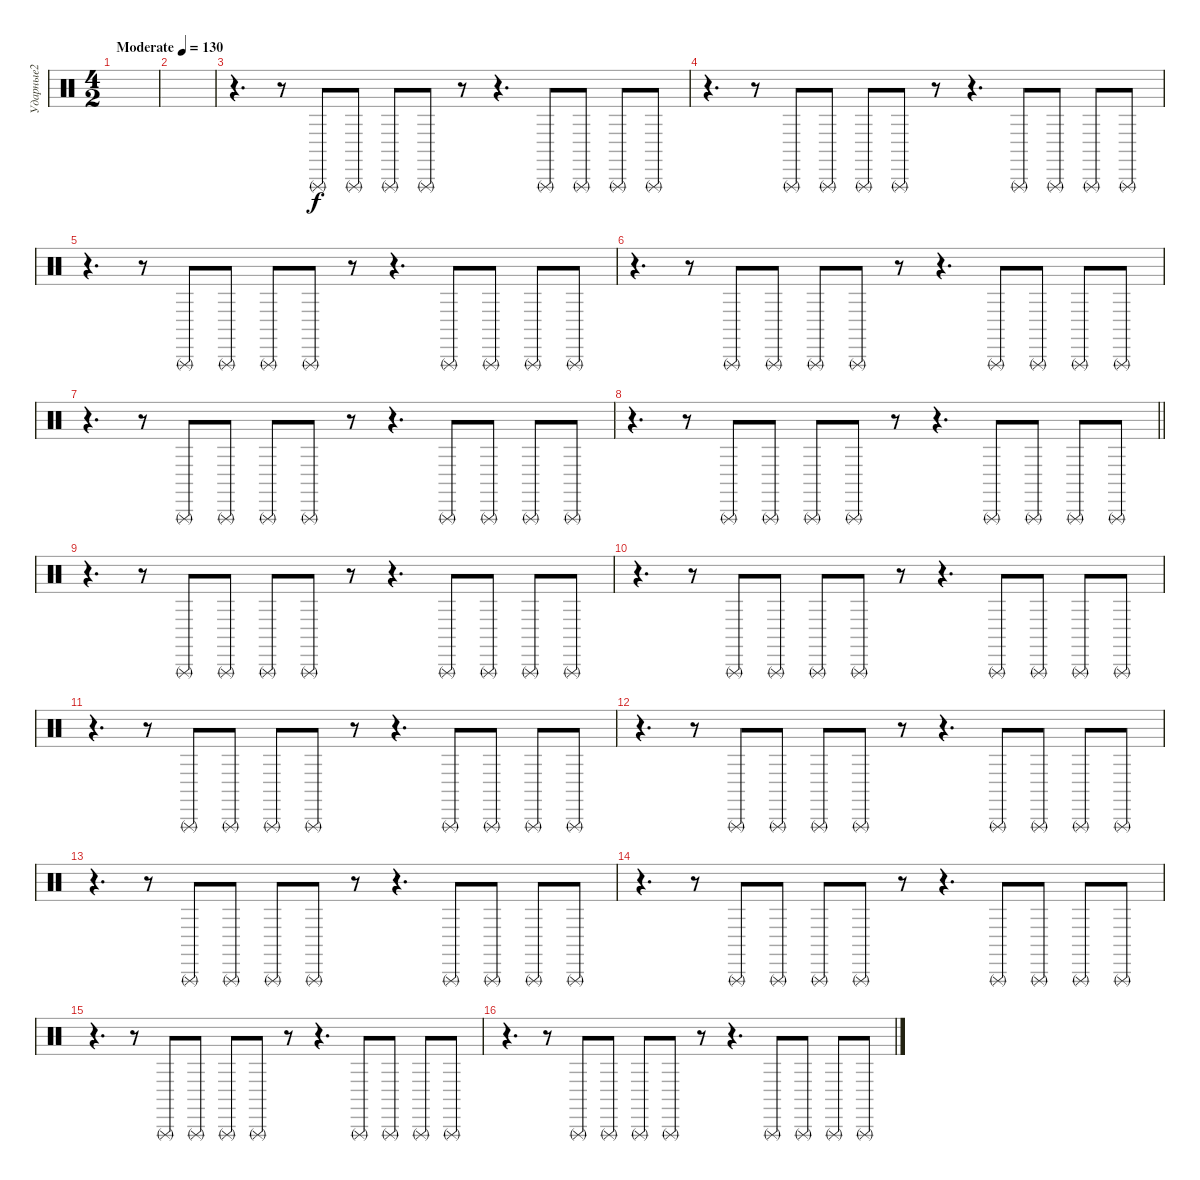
\track ("Ударные2" "Ударные2") {instrument percussion}
\staff {score}
\articulation defaults
\ts (4 2)
\tempo (130 "Moderate")
\clef neutral
\ks c
|
|
r.4{d} r.8 "Triangle (rnute)".8 "Triangle (rnute)".8 "Triangle (rnute)".8 "Triangle (rnute)".8 r.8 r.4{d} "Triangle (rnute)".8 "Triangle (rnute)".8 "Triangle (rnute)".8 "Triangle (rnute)".8 |
r.4{d} r.8 "Triangle (rnute)".8 "Triangle (rnute)".8 "Triangle (rnute)".8 "Triangle (rnute)".8 r.8 r.4{d} "Triangle (rnute)".8 "Triangle (rnute)".8 "Triangle (rnute)".8 "Triangle (rnute)".8 |
r.4{d} r.8 "Triangle (rnute)".8 "Triangle (rnute)".8 "Triangle (rnute)".8 "Triangle (rnute)".8 r.8 r.4{d} "Triangle (rnute)".8 "Triangle (rnute)".8 "Triangle (rnute)".8 "Triangle (rnute)".8 |
r.4{d} r.8 "Triangle (rnute)".8 "Triangle (rnute)".8 "Triangle (rnute)".8 "Triangle (rnute)".8 r.8 r.4{d} "Triangle (rnute)".8 "Triangle (rnute)".8 "Triangle (rnute)".8 "Triangle (rnute)".8 |
r.4{d} r.8 "Triangle (rnute)".8 "Triangle (rnute)".8 "Triangle (rnute)".8 "Triangle (rnute)".8 r.8 r.4{d} "Triangle (rnute)".8 "Triangle (rnute)".8 "Triangle (rnute)".8 "Triangle (rnute)".8 |
\barLineRight lightlight
r.4{d} r.8 "Triangle (rnute)".8 "Triangle (rnute)".8 "Triangle (rnute)".8 "Triangle (rnute)".8 r.8 r.4{d} "Triangle (rnute)".8 "Triangle (rnute)".8 "Triangle (rnute)".8 "Triangle (rnute)".8 |
r.4{d} r.8 "Triangle (rnute)".8 "Triangle (rnute)".8 "Triangle (rnute)".8 "Triangle (rnute)".8 r.8 r.4{d} "Triangle (rnute)".8 "Triangle (rnute)".8 "Triangle (rnute)".8 "Triangle (rnute)".8 |
r.4{d} r.8 "Triangle (rnute)".8 "Triangle (rnute)".8 "Triangle (rnute)".8 "Triangle (rnute)".8 r.8 r.4{d} "Triangle (rnute)".8 "Triangle (rnute)".8 "Triangle (rnute)".8 "Triangle (rnute)".8 |
r.4{d} r.8 "Triangle (rnute)".8 "Triangle (rnute)".8 "Triangle (rnute)".8 "Triangle (rnute)".8 r.8 r.4{d} "Triangle (rnute)".8 "Triangle (rnute)".8 "Triangle (rnute)".8 "Triangle (rnute)".8 |
r.4{d} r.8 "Triangle (rnute)".8 "Triangle (rnute)".8 "Triangle (rnute)".8 "Triangle (rnute)".8 r.8 r.4{d} "Triangle (rnute)".8 "Triangle (rnute)".8 "Triangle (rnute)".8 "Triangle (rnute)".8 |
r.4{d} r.8 "Triangle (rnute)".8 "Triangle (rnute)".8 "Triangle (rnute)".8 "Triangle (rnute)".8 r.8 r.4{d} "Triangle (rnute)".8 "Triangle (rnute)".8 "Triangle (rnute)".8 "Triangle (rnute)".8 |
r.4{d} r.8 "Triangle (rnute)".8 "Triangle (rnute)".8 "Triangle (rnute)".8 "Triangle (rnute)".8 r.8 r.4{d} "Triangle (rnute)".8 "Triangle (rnute)".8 "Triangle (rnute)".8 "Triangle (rnute)".8 |
r.4{d} r.8 "Triangle (rnute)".8 "Triangle (rnute)".8 "Triangle (rnute)".8 "Triangle (rnute)".8 r.8 r.4{d} "Triangle (rnute)".8 "Triangle (rnute)".8 "Triangle (rnute)".8 "Triangle (rnute)".8 |
r.4{d} r.8 "Triangle (rnute)".8 "Triangle (rnute)".8 "Triangle (rnute)".8 "Triangle (rnute)".8 r.8 r.4{d} "Triangle (rnute)".8 "Triangle (rnute)".8 "Triangle (rnute)".8 "Triangle (rnute)".8
